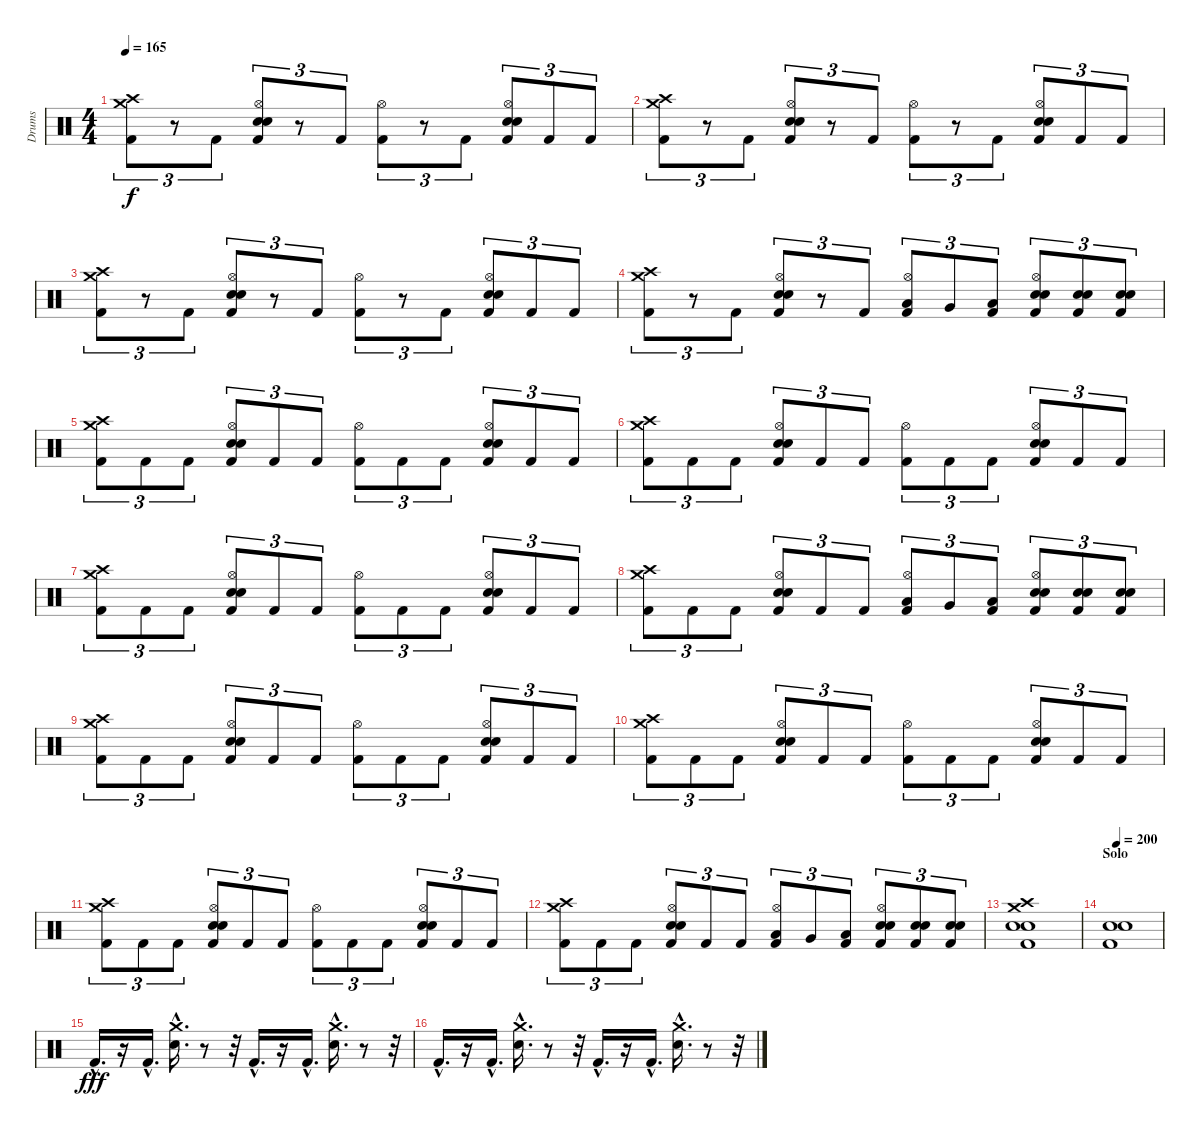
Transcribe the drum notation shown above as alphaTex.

\track ("Drums" "Drums") {instrument percussion}
\staff {score}
\articulation defaults
\ts (4 4)
\tempo 165
\clef neutral
\ks c
("Crash high (hit)" "Crash medium (hit)" "Kick (hit) 2").8{tu (3 2) dy f} r.8{tu (3 2)} "Kick (hit) 2".8{tu (3 2)} ("Hi-Hat (open)" "Electric Snare (hit)" "Snare (hit) 2" "Kick (hit) 2").8{tu (3 2)} r.8{tu (3 2)} "Kick (hit) 2".8{tu (3 2)} ("Hi-Hat (open)" "Kick (hit) 2").8{tu (3 2)} r.8{tu (3 2)} "Kick (hit) 2".8{tu (3 2)} ("Hi-Hat (open)" "Electric Snare (hit)" "Snare (hit) 2" "Kick (hit) 2").8{tu (3 2)} "Kick (hit) 2".8{tu (3 2)} "Kick (hit) 2".8{tu (3 2)} |
("Crash high (hit)" "Crash medium (hit)" "Kick (hit) 2").8{tu (3 2)} r.8{tu (3 2)} "Kick (hit) 2".8{tu (3 2)} ("Hi-Hat (open)" "Electric Snare (hit)" "Snare (hit) 2" "Kick (hit) 2").8{tu (3 2)} r.8{tu (3 2)} "Kick (hit) 2".8{tu (3 2)} ("Hi-Hat (open)" "Kick (hit) 2").8{tu (3 2)} r.8{tu (3 2)} "Kick (hit) 2".8{tu (3 2)} ("Hi-Hat (open)" "Electric Snare (hit)" "Snare (hit) 2" "Kick (hit) 2").8{tu (3 2)} "Kick (hit) 2".8{tu (3 2)} "Kick (hit) 2".8{tu (3 2)} |
("Crash high (hit)" "Crash medium (hit)" "Kick (hit) 2").8{tu (3 2)} r.8{tu (3 2)} "Kick (hit) 2".8{tu (3 2)} ("Hi-Hat (open)" "Electric Snare (hit)" "Snare (hit) 2" "Kick (hit) 2").8{tu (3 2)} r.8{tu (3 2)} "Kick (hit) 2".8{tu (3 2)} ("Hi-Hat (open)" "Kick (hit) 2").8{tu (3 2)} r.8{tu (3 2)} "Kick (hit) 2".8{tu (3 2)} ("Hi-Hat (open)" "Electric Snare (hit)" "Snare (hit) 2" "Kick (hit) 2").8{tu (3 2)} "Kick (hit) 2".8{tu (3 2)} "Kick (hit) 2".8{tu (3 2)} |
("Crash high (hit)" "Crash medium (hit)" "Kick (hit) 2").8{tu (3 2)} r.8{tu (3 2)} "Kick (hit) 2".8{tu (3 2)} ("Hi-Hat (open)" "Electric Snare (hit)" "Snare (hit) 2" "Kick (hit) 2").8{tu (3 2)} r.8{tu (3 2)} "Kick (hit) 2".8{tu (3 2)} ("Hi-Hat (open)" "Low Tom (hit)" "Kick (hit) 2").8{tu (3 2)} "Very Low Tom (hit)".8{tu (3 2)} ("Low Floor Tom (hit)" "Kick (hit) 2").8{tu (3 2)} ("Hi-Hat (open)" "Electric Snare (hit)" "Snare (hit) 2" "Kick (hit) 2").8{tu (3 2)} ("Electric Snare (hit)" "Snare (hit) 2" "Kick (hit) 2").8{tu (3 2)} ("Electric Snare (hit)" "Snare (hit) 2" "Kick (hit) 2").8{tu (3 2)} |
("Crash high (hit)" "Crash medium (hit)" "Kick (hit) 2").8{tu (3 2)} "Kick (hit) 2".8{tu (3 2)} "Kick (hit) 2".8{tu (3 2)} ("Hi-Hat (open)" "Electric Snare (hit)" "Snare (hit) 2" "Kick (hit) 2").8{tu (3 2)} "Kick (hit) 2".8{tu (3 2)} "Kick (hit) 2".8{tu (3 2)} ("Hi-Hat (open)" "Kick (hit) 2").8{tu (3 2)} "Kick (hit) 2".8{tu (3 2)} "Kick (hit) 2".8{tu (3 2)} ("Hi-Hat (open)" "Electric Snare (hit)" "Snare (hit) 2" "Kick (hit) 2").8{tu (3 2)} "Kick (hit) 2".8{tu (3 2)} "Kick (hit) 2".8{tu (3 2)} |
("Crash high (hit)" "Crash medium (hit)" "Kick (hit) 2").8{tu (3 2)} "Kick (hit) 2".8{tu (3 2)} "Kick (hit) 2".8{tu (3 2)} ("Hi-Hat (open)" "Electric Snare (hit)" "Snare (hit) 2" "Kick (hit) 2").8{tu (3 2)} "Kick (hit) 2".8{tu (3 2)} "Kick (hit) 2".8{tu (3 2)} ("Hi-Hat (open)" "Kick (hit) 2").8{tu (3 2)} "Kick (hit) 2".8{tu (3 2)} "Kick (hit) 2".8{tu (3 2)} ("Hi-Hat (open)" "Electric Snare (hit)" "Snare (hit) 2" "Kick (hit) 2").8{tu (3 2)} "Kick (hit) 2".8{tu (3 2)} "Kick (hit) 2".8{tu (3 2)} |
("Crash high (hit)" "Crash medium (hit)" "Kick (hit) 2").8{tu (3 2)} "Kick (hit) 2".8{tu (3 2)} "Kick (hit) 2".8{tu (3 2)} ("Hi-Hat (open)" "Electric Snare (hit)" "Snare (hit) 2" "Kick (hit) 2").8{tu (3 2)} "Kick (hit) 2".8{tu (3 2)} "Kick (hit) 2".8{tu (3 2)} ("Hi-Hat (open)" "Kick (hit) 2").8{tu (3 2)} "Kick (hit) 2".8{tu (3 2)} "Kick (hit) 2".8{tu (3 2)} ("Hi-Hat (open)" "Electric Snare (hit)" "Snare (hit) 2" "Kick (hit) 2").8{tu (3 2)} "Kick (hit) 2".8{tu (3 2)} "Kick (hit) 2".8{tu (3 2)} |
("Crash high (hit)" "Crash medium (hit)" "Kick (hit) 2").8{tu (3 2)} "Kick (hit) 2".8{tu (3 2)} "Kick (hit) 2".8{tu (3 2)} ("Hi-Hat (open)" "Electric Snare (hit)" "Snare (hit) 2" "Kick (hit) 2").8{tu (3 2)} "Kick (hit) 2".8{tu (3 2)} "Kick (hit) 2".8{tu (3 2)} ("Hi-Hat (open)" "Low Tom (hit)" "Kick (hit) 2").8{tu (3 2)} "Very Low Tom (hit)".8{tu (3 2)} ("Low Floor Tom (hit)" "Kick (hit) 2").8{tu (3 2)} ("Hi-Hat (open)" "Electric Snare (hit)" "Snare (hit) 2" "Kick (hit) 2").8{tu (3 2)} ("Electric Snare (hit)" "Snare (hit) 2" "Kick (hit) 2").8{tu (3 2)} ("Electric Snare (hit)" "Snare (hit) 2" "Kick (hit) 2").8{tu (3 2)} |
("Crash high (hit)" "Crash medium (hit)" "Kick (hit) 2").8{tu (3 2)} "Kick (hit) 2".8{tu (3 2)} "Kick (hit) 2".8{tu (3 2)} ("Hi-Hat (open)" "Electric Snare (hit)" "Snare (hit) 2" "Kick (hit) 2").8{tu (3 2)} "Kick (hit) 2".8{tu (3 2)} "Kick (hit) 2".8{tu (3 2)} ("Hi-Hat (open)" "Kick (hit) 2").8{tu (3 2)} "Kick (hit) 2".8{tu (3 2)} "Kick (hit) 2".8{tu (3 2)} ("Hi-Hat (open)" "Electric Snare (hit)" "Snare (hit) 2" "Kick (hit) 2").8{tu (3 2)} "Kick (hit) 2".8{tu (3 2)} "Kick (hit) 2".8{tu (3 2)} |
("Crash high (hit)" "Crash medium (hit)" "Kick (hit) 2").8{tu (3 2)} "Kick (hit) 2".8{tu (3 2)} "Kick (hit) 2".8{tu (3 2)} ("Hi-Hat (open)" "Electric Snare (hit)" "Snare (hit) 2" "Kick (hit) 2").8{tu (3 2)} "Kick (hit) 2".8{tu (3 2)} "Kick (hit) 2".8{tu (3 2)} ("Hi-Hat (open)" "Kick (hit) 2").8{tu (3 2)} "Kick (hit) 2".8{tu (3 2)} "Kick (hit) 2".8{tu (3 2)} ("Hi-Hat (open)" "Electric Snare (hit)" "Snare (hit) 2" "Kick (hit) 2").8{tu (3 2)} "Kick (hit) 2".8{tu (3 2)} "Kick (hit) 2".8{tu (3 2)} |
("Crash high (hit)" "Crash medium (hit)" "Kick (hit) 2").8{tu (3 2)} "Kick (hit) 2".8{tu (3 2)} "Kick (hit) 2".8{tu (3 2)} ("Hi-Hat (open)" "Electric Snare (hit)" "Snare (hit) 2" "Kick (hit) 2").8{tu (3 2)} "Kick (hit) 2".8{tu (3 2)} "Kick (hit) 2".8{tu (3 2)} ("Hi-Hat (open)" "Kick (hit) 2").8{tu (3 2)} "Kick (hit) 2".8{tu (3 2)} "Kick (hit) 2".8{tu (3 2)} ("Hi-Hat (open)" "Electric Snare (hit)" "Snare (hit) 2" "Kick (hit) 2").8{tu (3 2)} "Kick (hit) 2".8{tu (3 2)} "Kick (hit) 2".8{tu (3 2)} |
("Crash high (hit)" "Crash medium (hit)" "Kick (hit) 2").8{tu (3 2)} "Kick (hit) 2".8{tu (3 2)} "Kick (hit) 2".8{tu (3 2)} ("Hi-Hat (open)" "Electric Snare (hit)" "Snare (hit) 2" "Kick (hit) 2").8{tu (3 2)} "Kick (hit) 2".8{tu (3 2)} "Kick (hit) 2".8{tu (3 2)} ("Hi-Hat (open)" "Low Tom (hit)" "Kick (hit) 2").8{tu (3 2)} "Very Low Tom (hit)".8{tu (3 2)} ("Low Floor Tom (hit)" "Kick (hit) 2").8{tu (3 2)} ("Hi-Hat (open)" "Electric Snare (hit)" "Snare (hit) 2" "Kick (hit) 2").8{tu (3 2)} ("Electric Snare (hit)" "Snare (hit) 2" "Kick (hit) 2").8{tu (3 2)} ("Electric Snare (hit)" "Snare (hit) 2" "Kick (hit) 2").8{tu (3 2)} |
("Crash high (hit)" "Crash medium (hit)" "Electric Snare (hit)" "Snare (hit) 2" "Kick (hit) 2").1 |
\section ("" "Solo")
\tempo 200
("Electric Snare (hit)" "Snare (hit) 2" "Kick (hit) 2").1 |
"Kick (hit) 2"{hac}.16{d dy fff} r.16 "Kick (hit) 2"{hac}.16{d} ("Crash medium (hit)"{hac} "Electric Snare (hit)"{hac}).16{d} r.8 r.32 "Kick (hit) 2"{hac}.16{d} r.16 "Kick (hit) 2"{hac}.16{d} ("Crash medium (hit)"{hac} "Electric Snare (hit)"{hac}).16{d} r.8 r.32 |
"Kick (hit) 2"{hac}.16{d} r.16 "Kick (hit) 2"{hac}.16{d} ("Crash medium (hit)"{hac} "Electric Snare (hit)"{hac}).16{d} r.8 r.32 "Kick (hit) 2"{hac}.16{d} r.16 "Kick (hit) 2"{hac}.16{d} ("Crash medium (hit)"{hac} "Electric Snare (hit)"{hac}).16{d} r.8 r.32
